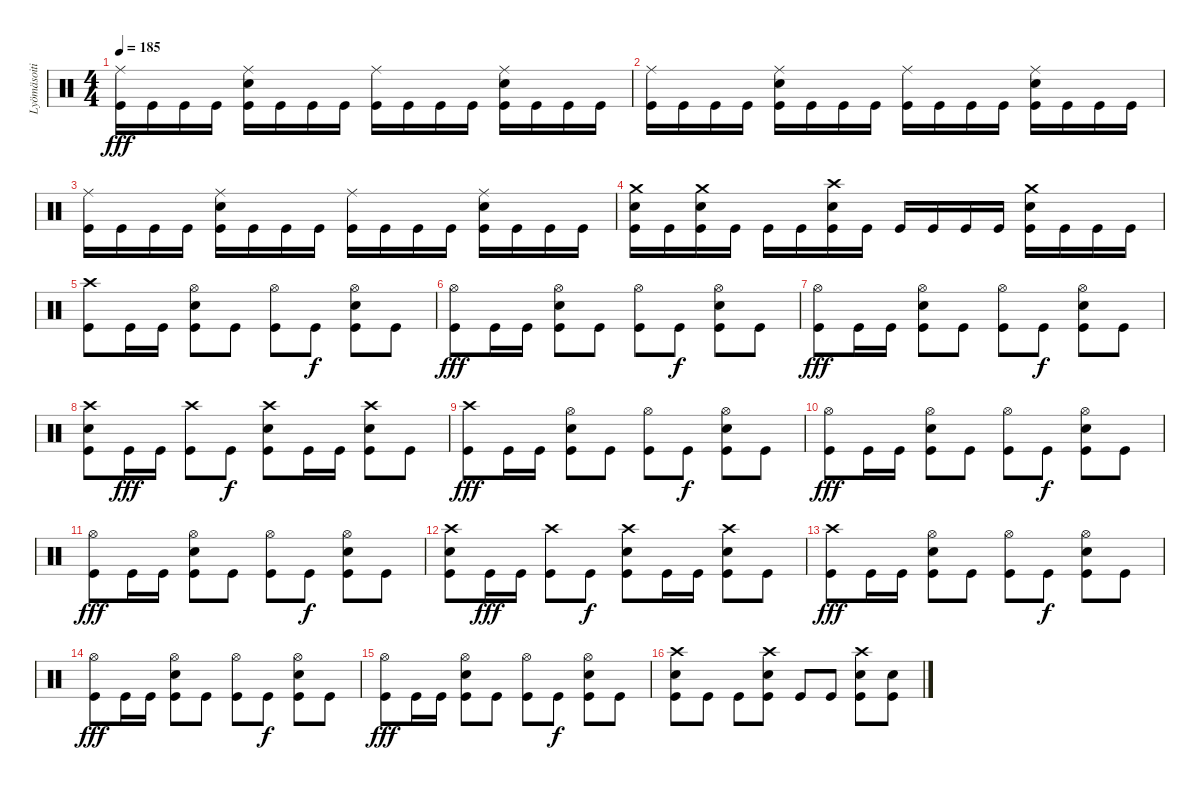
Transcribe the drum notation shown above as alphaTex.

\track ("Lyömäsoitin" "Lyömäsoiti") {instrument percussion}
\staff {score}
\articulation defaults
\ts (4 4)
\tempo 185
\clef neutral
\ks c
("Ride (middle)" "Kick (hit)").16{dy fff} "Kick (hit)".16 "Kick (hit)".16 "Kick (hit)".16 ("Ride (middle)" "Electric Snare (hit)" "Kick (hit)").16 "Kick (hit)".16 "Kick (hit)".16 "Kick (hit)".16 ("Ride (middle)" "Kick (hit)").16 "Kick (hit)".16 "Kick (hit)".16 "Kick (hit)".16 ("Ride (middle)" "Electric Snare (hit)" "Kick (hit)").16 "Kick (hit)".16 "Kick (hit)".16 "Kick (hit)".16 |
("Ride (middle)" "Kick (hit)").16 "Kick (hit)".16 "Kick (hit)".16 "Kick (hit)".16 ("Ride (middle)" "Electric Snare (hit)" "Kick (hit)").16 "Kick (hit)".16 "Kick (hit)".16 "Kick (hit)".16 ("Ride (middle)" "Kick (hit)").16 "Kick (hit)".16 "Kick (hit)".16 "Kick (hit)".16 ("Ride (middle)" "Electric Snare (hit)" "Kick (hit)").16 "Kick (hit)".16 "Kick (hit)".16 "Kick (hit)".16 |
("Ride (middle)" "Kick (hit)").16 "Kick (hit)".16 "Kick (hit)".16 "Kick (hit)".16 ("Ride (middle)" "Electric Snare (hit)" "Kick (hit)").16 "Kick (hit)".16 "Kick (hit)".16 "Kick (hit)".16 ("Ride (middle)" "Kick (hit)").16 "Kick (hit)".16 "Kick (hit)".16 "Kick (hit)".16 ("Ride (middle)" "Electric Snare (hit)" "Kick (hit)").16 "Kick (hit)".16 "Kick (hit)".16 "Kick (hit)".16 |
("Crash medium (hit)" "Electric Snare (hit)" "Kick (hit)").16 "Kick (hit)".16 ("Crash medium (hit)" "Electric Snare (hit)" "Kick (hit)").16 "Kick (hit)".16 "Kick (hit)".16 "Kick (hit)".16 ("Crash high (hit)" "Electric Snare (hit)" "Kick (hit)").16 "Kick (hit)".16 "Kick (hit)".16 "Kick (hit)".16 "Kick (hit)".16 "Kick (hit)".16 ("Crash medium (hit)" "Electric Snare (hit)" "Kick (hit)").16 "Kick (hit)".16 "Kick (hit)".16 "Kick (hit)".16 |
("Crash high (hit)" "Kick (hit)").8 "Kick (hit)".16 "Kick (hit)".16 ("Hi-Hat (open)" "Electric Snare (hit)" "Kick (hit)").8 "Kick (hit)".8 ("Hi-Hat (open)" "Kick (hit)").8 "Kick (hit)".8{dy f} ("Hi-Hat (open)" "Electric Snare (hit)" "Kick (hit)").8 "Kick (hit)".8 |
("Hi-Hat (open)" "Kick (hit)").8{dy fff} "Kick (hit)".16 "Kick (hit)".16 ("Hi-Hat (open)" "Electric Snare (hit)" "Kick (hit)").8 "Kick (hit)".8 ("Hi-Hat (open)" "Kick (hit)").8 "Kick (hit)".8{dy f} ("Hi-Hat (open)" "Electric Snare (hit)" "Kick (hit)").8 "Kick (hit)".8 |
("Hi-Hat (open)" "Kick (hit)").8{dy fff} "Kick (hit)".16 "Kick (hit)".16 ("Hi-Hat (open)" "Electric Snare (hit)" "Kick (hit)").8 "Kick (hit)".8 ("Hi-Hat (open)" "Kick (hit)").8 "Kick (hit)".8{dy f} ("Hi-Hat (open)" "Electric Snare (hit)" "Kick (hit)").8 "Kick (hit)".8 |
("Crash high (hit)" "Electric Snare (hit)" "Kick (hit)").8 "Kick (hit)".16{dy fff} "Kick (hit)".16 ("Crash high (hit)" "Kick (hit)").8 "Kick (hit)".8{dy f} ("Crash high (hit)" "Electric Snare (hit)" "Kick (hit)").8 "Kick (hit)".16 "Kick (hit)".16 ("Crash high (hit)" "Electric Snare (hit)" "Kick (hit)").8 "Kick (hit)".8 |
("Crash high (hit)" "Kick (hit)").8{dy fff} "Kick (hit)".16 "Kick (hit)".16 ("Hi-Hat (open)" "Electric Snare (hit)" "Kick (hit)").8 "Kick (hit)".8 ("Hi-Hat (open)" "Kick (hit)").8 "Kick (hit)".8{dy f} ("Hi-Hat (open)" "Electric Snare (hit)" "Kick (hit)").8 "Kick (hit)".8 |
("Hi-Hat (open)" "Kick (hit)").8{dy fff} "Kick (hit)".16 "Kick (hit)".16 ("Hi-Hat (open)" "Electric Snare (hit)" "Kick (hit)").8 "Kick (hit)".8 ("Hi-Hat (open)" "Kick (hit)").8 "Kick (hit)".8{dy f} ("Hi-Hat (open)" "Electric Snare (hit)" "Kick (hit)").8 "Kick (hit)".8 |
("Hi-Hat (open)" "Kick (hit)").8{dy fff} "Kick (hit)".16 "Kick (hit)".16 ("Hi-Hat (open)" "Electric Snare (hit)" "Kick (hit)").8 "Kick (hit)".8 ("Hi-Hat (open)" "Kick (hit)").8 "Kick (hit)".8{dy f} ("Hi-Hat (open)" "Electric Snare (hit)" "Kick (hit)").8 "Kick (hit)".8 |
("Crash high (hit)" "Electric Snare (hit)" "Kick (hit)").8 "Kick (hit)".16{dy fff} "Kick (hit)".16 ("Crash high (hit)" "Kick (hit)").8 "Kick (hit)".8{dy f} ("Crash high (hit)" "Electric Snare (hit)" "Kick (hit)").8 "Kick (hit)".16 "Kick (hit)".16 ("Crash high (hit)" "Electric Snare (hit)" "Kick (hit)").8 "Kick (hit)".8 |
("Crash high (hit)" "Kick (hit)").8{dy fff} "Kick (hit)".16 "Kick (hit)".16 ("Hi-Hat (open)" "Electric Snare (hit)" "Kick (hit)").8 "Kick (hit)".8 ("Hi-Hat (open)" "Kick (hit)").8 "Kick (hit)".8{dy f} ("Hi-Hat (open)" "Electric Snare (hit)" "Kick (hit)").8 "Kick (hit)".8 |
("Hi-Hat (open)" "Kick (hit)").8{dy fff} "Kick (hit)".16 "Kick (hit)".16 ("Hi-Hat (open)" "Electric Snare (hit)" "Kick (hit)").8 "Kick (hit)".8 ("Hi-Hat (open)" "Kick (hit)").8 "Kick (hit)".8{dy f} ("Hi-Hat (open)" "Electric Snare (hit)" "Kick (hit)").8 "Kick (hit)".8 |
("Hi-Hat (open)" "Kick (hit)").8{dy fff} "Kick (hit)".16 "Kick (hit)".16 ("Hi-Hat (open)" "Electric Snare (hit)" "Kick (hit)").8 "Kick (hit)".8 ("Hi-Hat (open)" "Kick (hit)").8 "Kick (hit)".8{dy f} ("Hi-Hat (open)" "Electric Snare (hit)" "Kick (hit)").8 "Kick (hit)".8 |
("Crash high (hit)" "Electric Snare (hit)" "Kick (hit)").8 "Kick (hit)".8 "Kick (hit)".8 ("Crash high (hit)" "Electric Snare (hit)" "Kick (hit)").8 "Kick (hit)".8 "Kick (hit)".8 ("Crash high (hit)" "Electric Snare (hit)" "Kick (hit)").8 ("Electric Snare (hit)" "Kick (hit)").8
